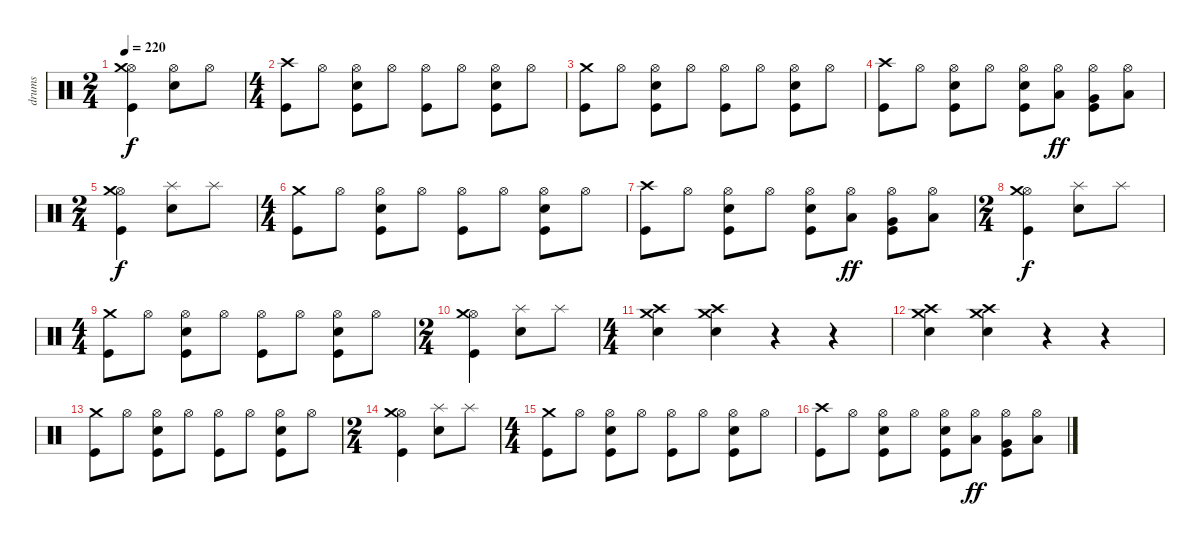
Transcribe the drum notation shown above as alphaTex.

\track ("drums" "drums") {instrument percussion}
\staff {score}
\articulation defaults
\ts (2 4)
\tempo 220
\clef neutral
\ks c
("Hi-Hat (open)" "Crash medium (hit)" "Kick (hit)").4{dy f} ("Hi-Hat (open)" "Electric Snare (hit)").8 "Hi-Hat (open)".8 |
\ts (4 4)
("Crash high (hit)" "Kick (hit)").8 "Hi-Hat (open)".8 ("Hi-Hat (open)" "Electric Snare (hit)" "Kick (hit)").8 "Hi-Hat (open)".8 ("Hi-Hat (open)" "Kick (hit)").8 "Hi-Hat (open)".8 ("Hi-Hat (open)" "Electric Snare (hit)" "Kick (hit)").8 "Hi-Hat (open)".8 |
("Crash medium (hit)" "Kick (hit)").8 "Hi-Hat (open)".8 ("Hi-Hat (open)" "Electric Snare (hit)" "Kick (hit)").8 "Hi-Hat (open)".8 ("Hi-Hat (open)" "Kick (hit)").8 "Hi-Hat (open)".8 ("Hi-Hat (open)" "Electric Snare (hit)" "Kick (hit)").8 "Hi-Hat (open)".8 |
("Crash high (hit)" "Kick (hit)").8 "Hi-Hat (open)".8 ("Hi-Hat (open)" "Electric Snare (hit)" "Kick (hit)").8 "Hi-Hat (open)".8 ("Hi-Hat (open)" "Electric Snare (hit)" "Kick (hit)").8 ("Hi-Hat (open)" "Low Floor Tom (hit)").8{dy ff} ("Hi-Hat (open)" "Very Low Tom (hit)" "Kick (hit)").8 ("Hi-Hat (open)" "Low Tom (hit)").8 |
\ts (2 4)
("Hi-Hat (open)" "Crash medium (hit)" "Kick (hit)").4{dy f} ("Splash (hit)" "Electric Snare (hit)").8 "Splash (hit)".8 |
\ts (4 4)
("Crash medium (hit)" "Kick (hit)").8 "Hi-Hat (open)".8 ("Hi-Hat (open)" "Electric Snare (hit)" "Kick (hit)").8 "Hi-Hat (open)".8 ("Hi-Hat (open)" "Kick (hit)").8 "Hi-Hat (open)".8 ("Hi-Hat (open)" "Electric Snare (hit)" "Kick (hit)").8 "Hi-Hat (open)".8 |
("Crash high (hit)" "Kick (hit)").8 "Hi-Hat (open)".8 ("Hi-Hat (open)" "Electric Snare (hit)" "Kick (hit)").8 "Hi-Hat (open)".8 ("Hi-Hat (open)" "Electric Snare (hit)" "Kick (hit)").8 ("Hi-Hat (open)" "Low Floor Tom (hit)").8{dy ff} ("Hi-Hat (open)" "Very Low Tom (hit)" "Kick (hit)").8 ("Hi-Hat (open)" "Low Tom (hit)").8 |
\ts (2 4)
("Hi-Hat (open)" "Crash medium (hit)" "Kick (hit)").4{dy f} ("Splash (hit)" "Electric Snare (hit)").8 "Splash (hit)".8 |
\ts (4 4)
("Crash medium (hit)" "Kick (hit)").8 "Hi-Hat (open)".8 ("Hi-Hat (open)" "Electric Snare (hit)" "Kick (hit)").8 "Hi-Hat (open)".8 ("Hi-Hat (open)" "Kick (hit)").8 "Hi-Hat (open)".8 ("Hi-Hat (open)" "Electric Snare (hit)" "Kick (hit)").8 "Hi-Hat (open)".8 |
\ts (2 4)
("Hi-Hat (open)" "Crash medium (hit)" "Kick (hit)").4 ("Splash (hit)" "Electric Snare (hit)").8 "Splash (hit)".8 |
\ts (4 4)
("Crash medium (hit)" "Crash high (hit)" "Electric Snare (hit)").4 ("Crash medium (hit)" "Crash high (hit)" "Electric Snare (hit)").4 r.4 r.4 |
("Crash medium (hit)" "Crash high (hit)" "Electric Snare (hit)").4 ("Crash medium (hit)" "Crash high (hit)" "Electric Snare (hit)").4 r.4 r.4 |
("Crash medium (hit)" "Kick (hit)").8 "Hi-Hat (open)".8 ("Hi-Hat (open)" "Electric Snare (hit)" "Kick (hit)").8 "Hi-Hat (open)".8 ("Hi-Hat (open)" "Kick (hit)").8 "Hi-Hat (open)".8 ("Hi-Hat (open)" "Electric Snare (hit)" "Kick (hit)").8 "Hi-Hat (open)".8 |
\ts (2 4)
("Hi-Hat (open)" "Crash medium (hit)" "Kick (hit)").4 ("Splash (hit)" "Electric Snare (hit)").8 "Splash (hit)".8 |
\ts (4 4)
("Crash medium (hit)" "Kick (hit)").8 "Hi-Hat (open)".8 ("Hi-Hat (open)" "Electric Snare (hit)" "Kick (hit)").8 "Hi-Hat (open)".8 ("Hi-Hat (open)" "Kick (hit)").8 "Hi-Hat (open)".8 ("Hi-Hat (open)" "Electric Snare (hit)" "Kick (hit)").8 "Hi-Hat (open)".8 |
("Crash high (hit)" "Kick (hit)").8 "Hi-Hat (open)".8 ("Hi-Hat (open)" "Electric Snare (hit)" "Kick (hit)").8 "Hi-Hat (open)".8 ("Hi-Hat (open)" "Electric Snare (hit)" "Kick (hit)").8 ("Hi-Hat (open)" "Low Floor Tom (hit)").8{dy ff} ("Hi-Hat (open)" "Very Low Tom (hit)" "Kick (hit)").8 ("Hi-Hat (open)" "Low Tom (hit)").8
